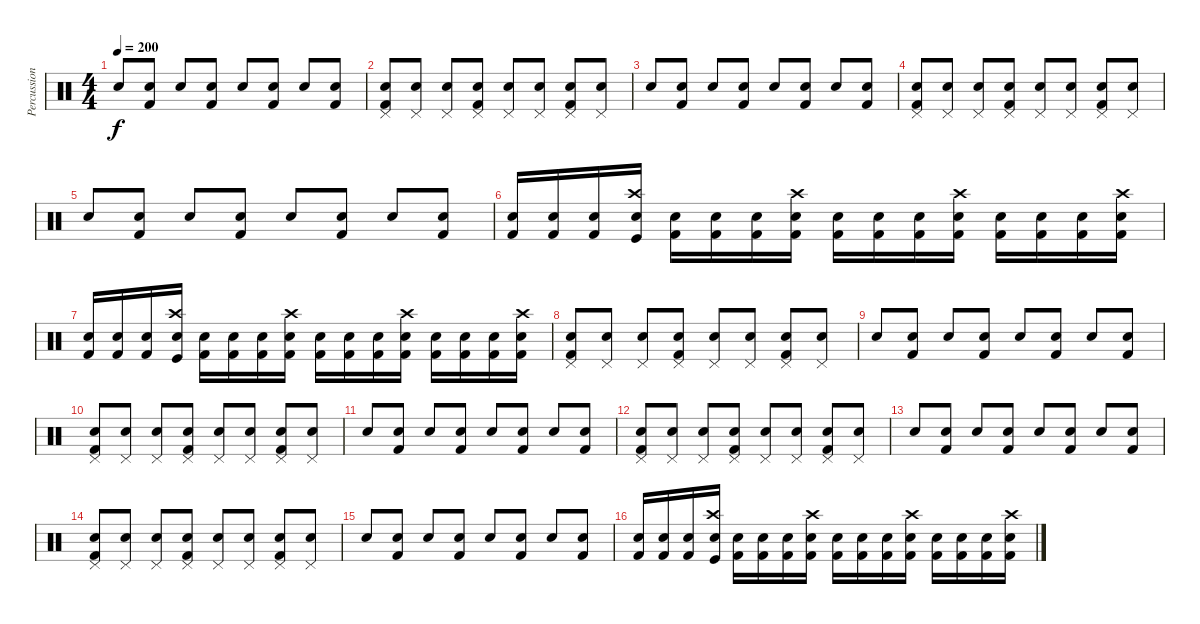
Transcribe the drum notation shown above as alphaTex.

\track ("Percussion" "Percussion") {instrument percussion}
\staff {score}
\articulation defaults
\ts (4 4)
\tempo 200
\clef neutral
\ks c "Electric Snare (hit)".8{dy f}
("Kick (hit) 2" "Snare (hit) 2").8 "Electric Snare (hit)".8 ("Kick (hit) 2" "Snare (hit) 2").8 "Electric Snare (hit)".8 ("Snare (hit) 2" "Kick (hit) 2").8 "Electric Snare (hit)".8 ("Snare (hit) 2" "Kick (hit) 2").8 |
("Pedal Hi-Hat (hit)" "Kick (hit) 2" "Snare (hit) 2").8 ("Pedal Hi-Hat (hit)" "Electric Snare (hit)").8 ("Pedal Hi-Hat (hit)" "Electric Snare (hit)").8 ("Pedal Hi-Hat (hit)" "Snare (hit) 2" "Kick (hit) 2").8 ("Pedal Hi-Hat (hit)" "Electric Snare (hit)").8 ("Pedal Hi-Hat (hit)" "Electric Snare (hit)").8 ("Pedal Hi-Hat (hit)" "Kick (hit) 2" "Snare (hit) 2").8 ("Pedal Hi-Hat (hit)" "Electric Snare (hit)").8 |
"Electric Snare (hit)".8 ("Kick (hit) 2" "Snare (hit) 2").8 "Electric Snare (hit)".8 ("Kick (hit) 2" "Snare (hit) 2").8 "Electric Snare (hit)".8 ("Snare (hit) 2" "Kick (hit) 2").8 "Electric Snare (hit)".8 ("Snare (hit) 2" "Kick (hit) 2").8 |
("Pedal Hi-Hat (hit)" "Kick (hit) 2" "Snare (hit) 2").8 ("Pedal Hi-Hat (hit)" "Electric Snare (hit)").8 ("Pedal Hi-Hat (hit)" "Electric Snare (hit)").8 ("Pedal Hi-Hat (hit)" "Snare (hit) 2" "Kick (hit) 2").8 ("Pedal Hi-Hat (hit)" "Electric Snare (hit)").8 ("Pedal Hi-Hat (hit)" "Electric Snare (hit)").8 ("Pedal Hi-Hat (hit)" "Kick (hit) 2" "Snare (hit) 2").8 ("Pedal Hi-Hat (hit)" "Electric Snare (hit)").8 |
"Electric Snare (hit)".8 ("Kick (hit) 2" "Snare (hit) 2").8 "Electric Snare (hit)".8 ("Kick (hit) 2" "Snare (hit) 2").8 "Electric Snare (hit)".8 ("Snare (hit) 2" "Kick (hit) 2").8 "Electric Snare (hit)".8 ("Snare (hit) 2" "Kick (hit) 2").8 |
("Kick (hit) 2" "Snare (hit) 2").16 ("Snare (hit) 2" "Kick (hit) 2").16 ("Kick (hit) 2" "Snare (hit) 2").16 ("Crash high (hit)" "Kick (hit)" "Snare (hit) 2").16 ("Snare (hit) 2" "Kick (hit) 2").16 ("Kick (hit) 2" "Snare (hit) 2").16 ("Kick (hit) 2" "Snare (hit) 2").16 ("Kick (hit) 2" "Snare (hit) 2" "Crash high (hit)").16 ("Kick (hit) 2" "Snare (hit) 2").16 ("Snare (hit) 2" "Kick (hit) 2").16 ("Kick (hit) 2" "Snare (hit) 2").16 ("Kick (hit) 2" "Snare (hit) 2" "Crash high (hit)").16 ("Kick (hit) 2" "Snare (hit) 2").16 ("Snare (hit) 2" "Kick (hit) 2").16 ("Kick (hit) 2" "Snare (hit) 2").16 ("Kick (hit) 2" "Crash high (hit)" "Snare (hit) 2").16 |
("Kick (hit) 2" "Snare (hit) 2").16 ("Snare (hit) 2" "Kick (hit) 2").16 ("Kick (hit) 2" "Snare (hit) 2").16 ("Crash high (hit)" "Kick (hit)" "Snare (hit) 2").16 ("Snare (hit) 2" "Kick (hit) 2").16 ("Kick (hit) 2" "Snare (hit) 2").16 ("Kick (hit) 2" "Snare (hit) 2").16 ("Kick (hit) 2" "Snare (hit) 2" "Crash high (hit)").16 ("Kick (hit) 2" "Snare (hit) 2").16 ("Snare (hit) 2" "Kick (hit) 2").16 ("Kick (hit) 2" "Snare (hit) 2").16 ("Kick (hit) 2" "Snare (hit) 2" "Crash high (hit)").16 ("Kick (hit) 2" "Snare (hit) 2").16 ("Snare (hit) 2" "Kick (hit) 2").16 ("Kick (hit) 2" "Snare (hit) 2").16 ("Kick (hit) 2" "Crash high (hit)" "Snare (hit) 2").16 |
("Pedal Hi-Hat (hit)" "Kick (hit) 2" "Snare (hit) 2").8 ("Pedal Hi-Hat (hit)" "Electric Snare (hit)").8 ("Pedal Hi-Hat (hit)" "Electric Snare (hit)").8 ("Pedal Hi-Hat (hit)" "Snare (hit) 2" "Kick (hit) 2").8 ("Pedal Hi-Hat (hit)" "Electric Snare (hit)").8 ("Pedal Hi-Hat (hit)" "Electric Snare (hit)").8 ("Pedal Hi-Hat (hit)" "Kick (hit) 2" "Snare (hit) 2").8 ("Pedal Hi-Hat (hit)" "Electric Snare (hit)").8 |
"Electric Snare (hit)".8 ("Kick (hit) 2" "Snare (hit) 2").8 "Electric Snare (hit)".8 ("Kick (hit) 2" "Snare (hit) 2").8 "Electric Snare (hit)".8 ("Snare (hit) 2" "Kick (hit) 2").8 "Electric Snare (hit)".8 ("Snare (hit) 2" "Kick (hit) 2").8 |
("Pedal Hi-Hat (hit)" "Kick (hit) 2" "Snare (hit) 2").8 ("Pedal Hi-Hat (hit)" "Electric Snare (hit)").8 ("Pedal Hi-Hat (hit)" "Electric Snare (hit)").8 ("Pedal Hi-Hat (hit)" "Snare (hit) 2" "Kick (hit) 2").8 ("Pedal Hi-Hat (hit)" "Electric Snare (hit)").8 ("Pedal Hi-Hat (hit)" "Electric Snare (hit)").8 ("Pedal Hi-Hat (hit)" "Kick (hit) 2" "Snare (hit) 2").8 ("Pedal Hi-Hat (hit)" "Electric Snare (hit)").8 |
"Electric Snare (hit)".8 ("Kick (hit) 2" "Snare (hit) 2").8 "Electric Snare (hit)".8 ("Kick (hit) 2" "Snare (hit) 2").8 "Electric Snare (hit)".8 ("Snare (hit) 2" "Kick (hit) 2").8 "Electric Snare (hit)".8 ("Snare (hit) 2" "Kick (hit) 2").8 |
("Pedal Hi-Hat (hit)" "Kick (hit) 2" "Snare (hit) 2").8 ("Pedal Hi-Hat (hit)" "Electric Snare (hit)").8 ("Pedal Hi-Hat (hit)" "Electric Snare (hit)").8 ("Pedal Hi-Hat (hit)" "Snare (hit) 2" "Kick (hit) 2").8 ("Pedal Hi-Hat (hit)" "Electric Snare (hit)").8 ("Pedal Hi-Hat (hit)" "Electric Snare (hit)").8 ("Pedal Hi-Hat (hit)" "Kick (hit) 2" "Snare (hit) 2").8 ("Pedal Hi-Hat (hit)" "Electric Snare (hit)").8 |
"Electric Snare (hit)".8 ("Kick (hit) 2" "Snare (hit) 2").8 "Electric Snare (hit)".8 ("Kick (hit) 2" "Snare (hit) 2").8 "Electric Snare (hit)".8 ("Snare (hit) 2" "Kick (hit) 2").8 "Electric Snare (hit)".8 ("Snare (hit) 2" "Kick (hit) 2").8 |
("Pedal Hi-Hat (hit)" "Kick (hit) 2" "Snare (hit) 2").8 ("Pedal Hi-Hat (hit)" "Electric Snare (hit)").8 ("Pedal Hi-Hat (hit)" "Electric Snare (hit)").8 ("Pedal Hi-Hat (hit)" "Snare (hit) 2" "Kick (hit) 2").8 ("Pedal Hi-Hat (hit)" "Electric Snare (hit)").8 ("Pedal Hi-Hat (hit)" "Electric Snare (hit)").8 ("Pedal Hi-Hat (hit)" "Kick (hit) 2" "Snare (hit) 2").8 ("Pedal Hi-Hat (hit)" "Electric Snare (hit)").8 |
"Electric Snare (hit)".8 ("Kick (hit) 2" "Snare (hit) 2").8 "Electric Snare (hit)".8 ("Kick (hit) 2" "Snare (hit) 2").8 "Electric Snare (hit)".8 ("Snare (hit) 2" "Kick (hit) 2").8 "Electric Snare (hit)".8 ("Snare (hit) 2" "Kick (hit) 2").8 |
("Kick (hit) 2" "Snare (hit) 2").16 ("Snare (hit) 2" "Kick (hit) 2").16 ("Kick (hit) 2" "Snare (hit) 2").16 ("Crash high (hit)" "Kick (hit)" "Snare (hit) 2").16 ("Snare (hit) 2" "Kick (hit) 2").16 ("Kick (hit) 2" "Snare (hit) 2").16 ("Kick (hit) 2" "Snare (hit) 2").16 ("Kick (hit) 2" "Snare (hit) 2" "Crash high (hit)").16 ("Kick (hit) 2" "Snare (hit) 2").16 ("Snare (hit) 2" "Kick (hit) 2").16 ("Kick (hit) 2" "Snare (hit) 2").16 ("Kick (hit) 2" "Snare (hit) 2" "Crash high (hit)").16 ("Kick (hit) 2" "Snare (hit) 2").16 ("Snare (hit) 2" "Kick (hit) 2").16 ("Kick (hit) 2" "Snare (hit) 2").16 ("Kick (hit) 2" "Crash high (hit)" "Snare (hit) 2").16
